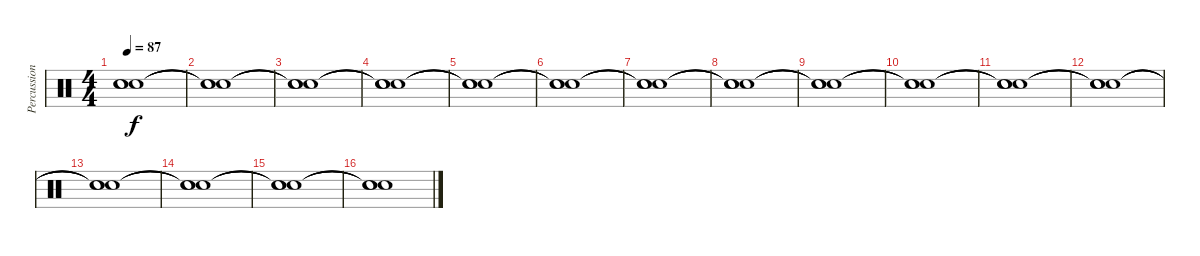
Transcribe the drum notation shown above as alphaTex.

\track ("Percussion" "Percussion") {instrument percussion}
\staff {score}
\articulation defaults
\ts (4 4)
\tempo 87
\clef neutral
\ks c
("Snare (hit)"{t} "Snare (hit)"{t} "Snare (hit)"{t}).1{dy f} |
("Snare (hit)"{t} "Snare (hit)"{t} "Snare (hit)"{t}).1 |
("Snare (hit)"{t} "Snare (hit)"{t} "Snare (hit)"{t}).1 |
("Snare (hit)"{t} "Snare (hit)"{t} "Snare (hit)"{t}).1 |
("Snare (hit)"{t} "Snare (hit)"{t} "Snare (hit)"{t}).1 |
("Snare (hit)"{t} "Snare (hit)"{t} "Snare (hit)"{t}).1 |
("Snare (hit)"{t} "Snare (hit)"{t} "Snare (hit)"{t}).1 |
("Snare (hit)"{t} "Snare (hit)"{t} "Snare (hit)"{t}).1 |
("Snare (hit)"{t} "Snare (hit)"{t} "Snare (hit)"{t}).1 |
("Snare (hit)"{t} "Snare (hit)"{t} "Snare (hit)"{t}).1 |
("Snare (hit)"{t} "Snare (hit)"{t} "Snare (hit)"{t}).1 |
("Snare (hit)"{t} "Snare (hit)"{t} "Snare (hit)"{t}).1 |
("Snare (hit)"{t} "Snare (hit)"{t} "Snare (hit)"{t}).1 |
("Snare (hit)"{t} "Snare (hit)"{t} "Snare (hit)"{t}).1 |
("Snare (hit)"{t} "Snare (hit)"{t} "Snare (hit)"{t}).1 |
("Snare (hit)"{t} "Snare (hit)"{t} "Snare (hit)"{t}).1
